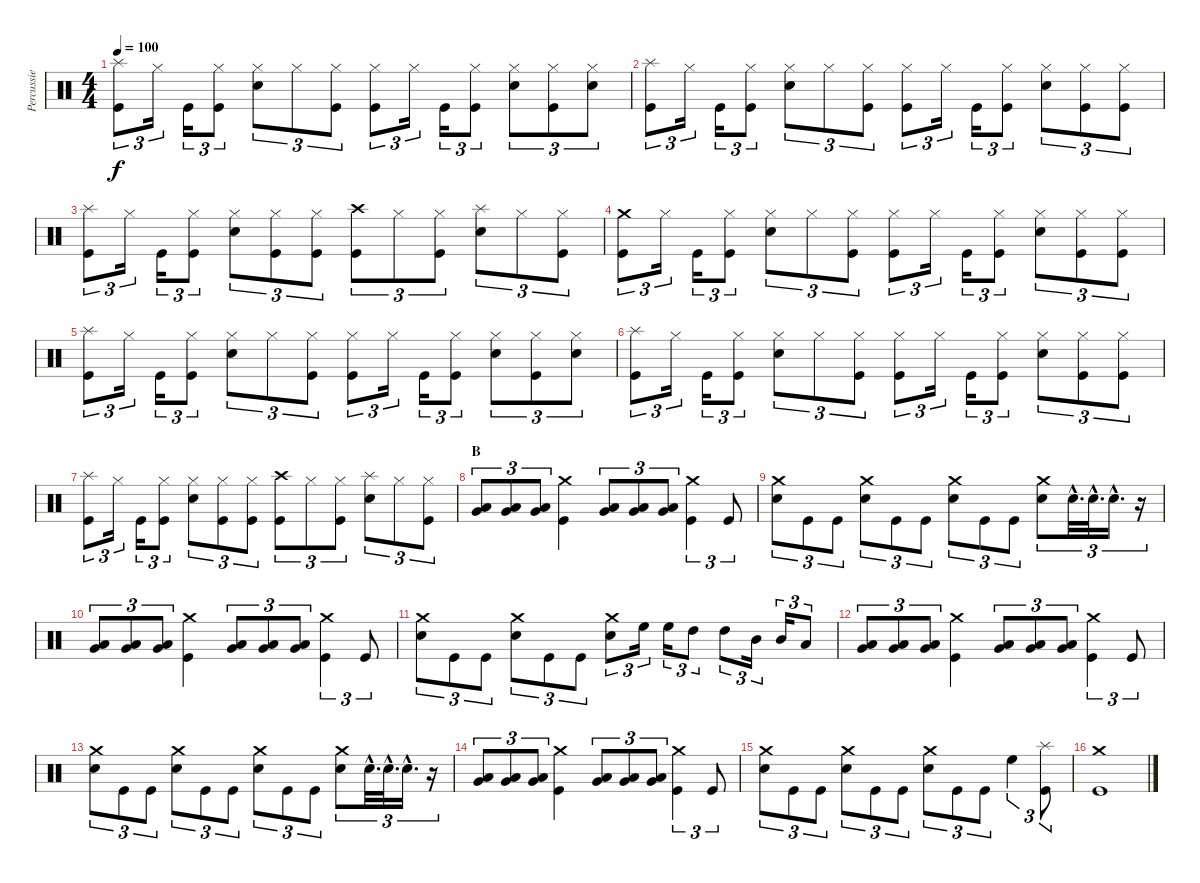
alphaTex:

\track ("Percussie" "Percussie") {instrument percussion}
\staff {score}
\articulation defaults
\ts (4 4)
\tempo 100
\clef neutral
\ks c
("Splash (hit)" "Kick (hit)").8{tu (3 2) dy f} "Hi-Hat (closed)".16{tu (3 2)} "Kick (hit)".16{tu (3 2)} ("Hi-Hat (closed)" "Kick (hit)").8{tu (3 2)} ("Hi-Hat (closed)" "Electric Snare (hit)").8{tu (3 2)} "Hi-Hat (closed)".8{tu (3 2)} ("Hi-Hat (closed)" "Kick (hit)").8{tu (3 2)} ("Hi-Hat (closed)" "Kick (hit)").8{tu (3 2)} "Hi-Hat (closed)".16{tu (3 2)} "Kick (hit)".16{tu (3 2)} ("Hi-Hat (closed)" "Kick (hit)").8{tu (3 2)} ("Hi-Hat (closed)" "Electric Snare (hit)").8{tu (3 2)} ("Hi-Hat (closed)" "Kick (hit)").8{tu (3 2)} ("Hi-Hat (closed)" "Electric Snare (hit)").8{tu (3 2)} |
("Splash (hit)" "Kick (hit)").8{tu (3 2)} "Hi-Hat (closed)".16{tu (3 2)} "Kick (hit)".16{tu (3 2)} ("Hi-Hat (closed)" "Kick (hit)").8{tu (3 2)} ("Hi-Hat (closed)" "Electric Snare (hit)").8{tu (3 2)} "Hi-Hat (closed)".8{tu (3 2)} ("Hi-Hat (closed)" "Kick (hit)").8{tu (3 2)} ("Hi-Hat (closed)" "Kick (hit)").8{tu (3 2)} "Hi-Hat (closed)".16{tu (3 2)} "Kick (hit)".16{tu (3 2)} ("Hi-Hat (closed)" "Kick (hit)").8{tu (3 2)} ("Hi-Hat (closed)" "Electric Snare (hit)").8{tu (3 2)} ("Hi-Hat (closed)" "Kick (hit)").8{tu (3 2)} ("Hi-Hat (closed)" "Kick (hit)").8{tu (3 2)} |
("Splash (hit)" "Kick (hit)").8{tu (3 2)} "Hi-Hat (closed)".16{tu (3 2)} "Kick (hit)".16{tu (3 2)} ("Hi-Hat (closed)" "Kick (hit)").8{tu (3 2)} ("Hi-Hat (closed)" "Electric Snare (hit)").8{tu (3 2)} ("Hi-Hat (closed)" "Kick (hit)").8{tu (3 2)} ("Hi-Hat (closed)" "Kick (hit)").8{tu (3 2)} ("Crash high (hit)" "Kick (hit)").8{tu (3 2)} "Hi-Hat (closed)".8{tu (3 2)} ("Hi-Hat (closed)" "Kick (hit)").8{tu (3 2)} ("Splash (hit)" "Electric Snare (hit)").8{tu (3 2)} "Hi-Hat (closed)".8{tu (3 2)} ("Hi-Hat (closed)" "Kick (hit)").8{tu (3 2)} |
("Crash medium (hit)" "Kick (hit)").8{tu (3 2)} "Hi-Hat (closed)".16{tu (3 2)} "Kick (hit)".16{tu (3 2)} ("Hi-Hat (closed)" "Kick (hit)").8{tu (3 2)} ("Hi-Hat (closed)" "Electric Snare (hit)").8{tu (3 2)} "Hi-Hat (closed)".8{tu (3 2)} ("Hi-Hat (closed)" "Kick (hit)").8{tu (3 2)} ("Hi-Hat (closed)" "Kick (hit)").8{tu (3 2)} "Hi-Hat (closed)".16{tu (3 2)} "Kick (hit)".16{tu (3 2)} ("Hi-Hat (closed)" "Kick (hit)").8{tu (3 2)} ("Hi-Hat (closed)" "Electric Snare (hit)").8{tu (3 2)} ("Hi-Hat (closed)" "Kick (hit)").8{tu (3 2)} ("Hi-Hat (closed)" "Kick (hit)").8{tu (3 2)} |
("Splash (hit)" "Kick (hit)").8{tu (3 2)} "Hi-Hat (closed)".16{tu (3 2)} "Kick (hit)".16{tu (3 2)} ("Hi-Hat (closed)" "Kick (hit)").8{tu (3 2)} ("Hi-Hat (closed)" "Electric Snare (hit)").8{tu (3 2)} "Hi-Hat (closed)".8{tu (3 2)} ("Hi-Hat (closed)" "Kick (hit)").8{tu (3 2)} ("Hi-Hat (closed)" "Kick (hit)").8{tu (3 2)} "Hi-Hat (closed)".16{tu (3 2)} "Kick (hit)".16{tu (3 2)} ("Hi-Hat (closed)" "Kick (hit)").8{tu (3 2)} ("Hi-Hat (closed)" "Electric Snare (hit)").8{tu (3 2)} ("Hi-Hat (closed)" "Kick (hit)").8{tu (3 2)} ("Hi-Hat (closed)" "Electric Snare (hit)").8{tu (3 2)} |
("Splash (hit)" "Kick (hit)").8{tu (3 2)} "Hi-Hat (closed)".16{tu (3 2)} "Kick (hit)".16{tu (3 2)} ("Hi-Hat (closed)" "Kick (hit)").8{tu (3 2)} ("Hi-Hat (closed)" "Electric Snare (hit)").8{tu (3 2)} "Hi-Hat (closed)".8{tu (3 2)} ("Hi-Hat (closed)" "Kick (hit)").8{tu (3 2)} ("Hi-Hat (closed)" "Kick (hit)").8{tu (3 2)} "Hi-Hat (closed)".16{tu (3 2)} "Kick (hit)".16{tu (3 2)} ("Hi-Hat (closed)" "Kick (hit)").8{tu (3 2)} ("Hi-Hat (closed)" "Electric Snare (hit)").8{tu (3 2)} ("Hi-Hat (closed)" "Kick (hit)").8{tu (3 2)} ("Hi-Hat (closed)" "Kick (hit)").8{tu (3 2)} |
("Splash (hit)" "Kick (hit)").8{tu (3 2)} "Hi-Hat (closed)".16{tu (3 2)} "Kick (hit)".16{tu (3 2)} ("Hi-Hat (closed)" "Kick (hit)").8{tu (3 2)} ("Hi-Hat (closed)" "Electric Snare (hit)").8{tu (3 2)} ("Hi-Hat (closed)" "Kick (hit)").8{tu (3 2)} ("Hi-Hat (closed)" "Kick (hit)").8{tu (3 2)} ("Crash high (hit)" "Kick (hit)").8{tu (3 2)} "Hi-Hat (closed)".8{tu (3 2)} ("Hi-Hat (closed)" "Kick (hit)").8{tu (3 2)} ("Splash (hit)" "Electric Snare (hit)").8{tu (3 2)} "Hi-Hat (closed)".8{tu (3 2)} ("Hi-Hat (closed)" "Kick (hit)").8{tu (3 2)} |
\section ("" "B")
("Very Low Tom (hit)" "Low Floor Tom (hit)").8{tu (3 2)} ("Very Low Tom (hit)" "Low Floor Tom (hit)").8{tu (3 2)} ("Very Low Tom (hit)" "Low Floor Tom (hit)").8{tu (3 2)} ("Crash medium (hit)" "Kick (hit)").4 ("Very Low Tom (hit)" "Low Floor Tom (hit)").8{tu (3 2)} ("Very Low Tom (hit)" "Low Floor Tom (hit)").8{tu (3 2)} ("Very Low Tom (hit)" "Low Floor Tom (hit)").8{tu (3 2)} ("Crash medium (hit)" "Kick (hit)").4{tu (3 2)} "Kick (hit)".8{tu (3 2)} |
("Crash medium (hit)" "Electric Snare (hit)").8{tu (3 2)} "Kick (hit)".8{tu (3 2)} "Kick (hit)".8{tu (3 2)} ("Crash medium (hit)" "Electric Snare (hit)").8{tu (3 2)} "Kick (hit)".8{tu (3 2)} "Kick (hit)".8{tu (3 2)} ("Crash medium (hit)" "Electric Snare (hit)").8{tu (3 2)} "Kick (hit)".8{tu (3 2)} "Kick (hit)".8{tu (3 2)} ("Crash medium (hit)" "Electric Snare (hit)").8{tu (3 2)} "Electric Snare (hit)"{hac}.32{d tu (3 2)} "Electric Snare (hit)"{hac}.32{d tu (3 2)} "Electric Snare (hit)"{hac}.16{d tu (3 2)} r.16{tu (3 2)} |
("Very Low Tom (hit)" "Low Floor Tom (hit)").8{tu (3 2)} ("Very Low Tom (hit)" "Low Floor Tom (hit)").8{tu (3 2)} ("Very Low Tom (hit)" "Low Floor Tom (hit)").8{tu (3 2)} ("Crash medium (hit)" "Kick (hit)").4 ("Very Low Tom (hit)" "Low Floor Tom (hit)").8{tu (3 2)} ("Very Low Tom (hit)" "Low Floor Tom (hit)").8{tu (3 2)} ("Very Low Tom (hit)" "Low Floor Tom (hit)").8{tu (3 2)} ("Crash medium (hit)" "Kick (hit)").4{tu (3 2)} "Kick (hit)".8{tu (3 2)} |
("Crash medium (hit)" "Electric Snare (hit)").8{tu (3 2)} "Kick (hit)".8{tu (3 2)} "Kick (hit)".8{tu (3 2)} ("Crash medium (hit)" "Electric Snare (hit)").8{tu (3 2)} "Kick (hit)".8{tu (3 2)} "Kick (hit)".8{tu (3 2)} ("Crash medium (hit)" "Electric Snare (hit)").8{tu (3 2)} "High Floor Tom (hit)".16{tu (3 2)} "High Floor Tom (hit)".16{tu (3 2)} "High Tom (hit)".8{tu (3 2)} "High Tom (hit)".8{tu (3 2)} "Mid Tom (hit)".16{tu (3 2)} "Mid Tom (hit)".16{tu (3 2)} "Low Tom (hit)".8{tu (3 2)} |
("Very Low Tom (hit)" "Low Floor Tom (hit)").8{tu (3 2)} ("Very Low Tom (hit)" "Low Floor Tom (hit)").8{tu (3 2)} ("Very Low Tom (hit)" "Low Floor Tom (hit)").8{tu (3 2)} ("Crash medium (hit)" "Kick (hit)").4 ("Very Low Tom (hit)" "Low Floor Tom (hit)").8{tu (3 2)} ("Very Low Tom (hit)" "Low Floor Tom (hit)").8{tu (3 2)} ("Very Low Tom (hit)" "Low Floor Tom (hit)").8{tu (3 2)} ("Crash medium (hit)" "Kick (hit)").4{tu (3 2)} "Kick (hit)".8{tu (3 2)} |
("Crash medium (hit)" "Electric Snare (hit)").8{tu (3 2)} "Kick (hit)".8{tu (3 2)} "Kick (hit)".8{tu (3 2)} ("Crash medium (hit)" "Electric Snare (hit)").8{tu (3 2)} "Kick (hit)".8{tu (3 2)} "Kick (hit)".8{tu (3 2)} ("Crash medium (hit)" "Electric Snare (hit)").8{tu (3 2)} "Kick (hit)".8{tu (3 2)} "Kick (hit)".8{tu (3 2)} ("Crash medium (hit)" "Electric Snare (hit)").8{tu (3 2)} "Electric Snare (hit)"{hac}.32{d tu (3 2)} "Electric Snare (hit)"{hac}.32{d tu (3 2)} "Electric Snare (hit)"{hac}.16{d tu (3 2)} r.16{tu (3 2)} |
("Very Low Tom (hit)" "Low Floor Tom (hit)").8{tu (3 2)} ("Very Low Tom (hit)" "Low Floor Tom (hit)").8{tu (3 2)} ("Very Low Tom (hit)" "Low Floor Tom (hit)").8{tu (3 2)} ("Crash medium (hit)" "Kick (hit)").4 ("Very Low Tom (hit)" "Low Floor Tom (hit)").8{tu (3 2)} ("Very Low Tom (hit)" "Low Floor Tom (hit)").8{tu (3 2)} ("Very Low Tom (hit)" "Low Floor Tom (hit)").8{tu (3 2)} ("Crash medium (hit)" "Kick (hit)").4{tu (3 2)} "Kick (hit)".8{tu (3 2)} |
("Crash medium (hit)" "Electric Snare (hit)").8{tu (3 2)} "Kick (hit)".8{tu (3 2)} "Kick (hit)".8{tu (3 2)} ("Crash medium (hit)" "Electric Snare (hit)").8{tu (3 2)} "Kick (hit)".8{tu (3 2)} "Kick (hit)".8{tu (3 2)} ("Crash medium (hit)" "Electric Snare (hit)").8{tu (3 2)} "Kick (hit)".8{tu (3 2)} "Kick (hit)".8{tu (3 2)} "High Floor Tom (hit)".4{tu (3 2)} ("Splash (hit)" "Kick (hit)").8{tu (3 2)} |
("Crash medium (hit)" "Kick (hit)").1
